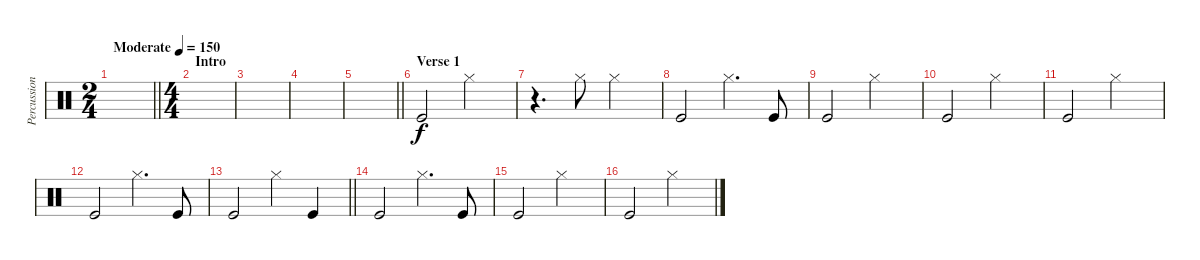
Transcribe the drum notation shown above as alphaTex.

\track ("Percussion" "Percussion") {instrument percussion}
\staff {score}
\articulation defaults
\ts (2 4)
\tempo (150 "Moderate")
\clef neutral
\barLineRight lightlight
\ks c
|
\ts (4 4)
\section ("" "Intro")
|
|
|
\barLineRight lightlight
|
\section ("" "Verse 1")
"Kick (hit)".2 "Hi-Hat (closed)".2 |
r.4{d} "Hi-Hat (closed)".8 "Hi-Hat (closed)".2 |
"Kick (hit)".2 "Hi-Hat (closed)".4{d} "Kick (hit)".8 |
"Kick (hit)".2 "Hi-Hat (closed)".2 |
"Kick (hit)".2 "Hi-Hat (closed)".2 |
"Kick (hit)".2 "Hi-Hat (closed)".2 |
"Kick (hit)".2 "Hi-Hat (closed)".4{d} "Kick (hit)".8 |
\barLineRight lightlight "Kick (hit)".2 "Hi-Hat (closed)".4 "Kick (hit)".4
|
"Kick (hit)".2 "Hi-Hat (closed)".4{d} "Kick (hit)".8 |
"Kick (hit)".2 "Hi-Hat (closed)".2 |
"Kick (hit)".2 "Hi-Hat (closed)".2
